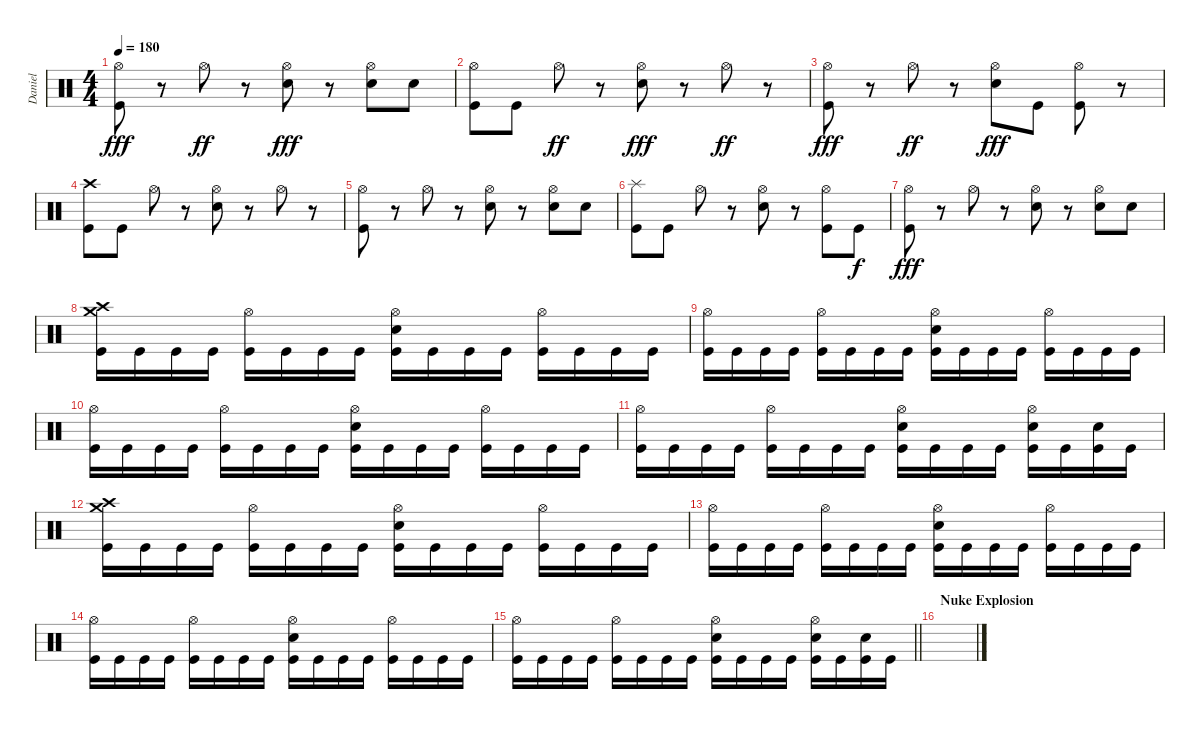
\track ("Daniel" "Daniel") {instrument percussion}
\staff {score}
\articulation defaults
\ts (4 4)
\tempo 180
\clef neutral
\ks c
("Hi-Hat (open)" "Kick (hit)").8{dy fff} r.8 "Hi-Hat (open)".8{dy ff} r.8 ("Hi-Hat (open)" "Snare (hit) 2").8{dy fff} r.8 ("Hi-Hat (open)" "Snare (hit) 2").8 "Snare (hit) 2".8 |
("Hi-Hat (open)" "Kick (hit)").8 "Kick (hit)".8 "Hi-Hat (open)".8{dy ff} r.8 ("Hi-Hat (open)" "Snare (hit) 2").8{dy fff} r.8 "Hi-Hat (open)".8{dy ff} r.8 |
("Hi-Hat (open)" "Kick (hit)").8{dy fff} r.8 "Hi-Hat (open)".8{dy ff} r.8 ("Hi-Hat (open)" "Snare (hit) 2").8{dy fff} "Kick (hit)".8 ("Hi-Hat (open)" "Kick (hit)").8 r.8 |
("Crash high (hit)" "Kick (hit)").8 "Kick (hit)".8 "Hi-Hat (open)".8 r.8 ("Hi-Hat (open)" "Snare (hit) 2").8 r.8 "Hi-Hat (open)".8 r.8 |
("Hi-Hat (open)" "Kick (hit)").8 r.8 "Hi-Hat (open)".8 r.8 ("Hi-Hat (open)" "Snare (hit) 2").8 r.8 ("Hi-Hat (open)" "Snare (hit) 2").8 "Snare (hit) 2".8 |
("Splash (hit)" "Kick (hit)").8 "Kick (hit)".8 "Hi-Hat (open)".8 r.8 ("Hi-Hat (open)" "Snare (hit) 2").8 r.8 ("Hi-Hat (open)" "Kick (hit)").8 "Kick (hit)".8{dy f} |
("Hi-Hat (open)" "Kick (hit)").8{dy fff} r.8 "Hi-Hat (open)".8 r.8 ("Hi-Hat (open)" "Snare (hit) 2").8 r.8 ("Hi-Hat (open)" "Snare (hit) 2").8 "Snare (hit) 2".8 |
("Crash high (hit)" "Crash medium (hit)" "Kick (hit)").16 "Kick (hit)".16 "Kick (hit)".16 "Kick (hit)".16 ("Hi-Hat (open)" "Kick (hit)").16 "Kick (hit)".16 "Kick (hit)".16 "Kick (hit)".16 ("Hi-Hat (open)" "Snare (hit) 2" "Kick (hit)").16 "Kick (hit)".16 "Kick (hit)".16 "Kick (hit)".16 ("Hi-Hat (open)" "Kick (hit)").16 "Kick (hit)".16 "Kick (hit)".16 "Kick (hit)".16 |
("Hi-Hat (open)" "Kick (hit)").16 "Kick (hit)".16 "Kick (hit)".16 "Kick (hit)".16 ("Hi-Hat (open)" "Kick (hit)").16 "Kick (hit)".16 "Kick (hit)".16 "Kick (hit)".16 ("Hi-Hat (open)" "Snare (hit) 2" "Kick (hit)").16 "Kick (hit)".16 "Kick (hit)".16 "Kick (hit)".16 ("Hi-Hat (open)" "Kick (hit)").16 "Kick (hit)".16 "Kick (hit)".16 "Kick (hit)".16 |
("Hi-Hat (open)" "Kick (hit)").16 "Kick (hit)".16 "Kick (hit)".16 "Kick (hit)".16 ("Hi-Hat (open)" "Kick (hit)").16 "Kick (hit)".16 "Kick (hit)".16 "Kick (hit)".16 ("Hi-Hat (open)" "Snare (hit) 2" "Kick (hit)").16 "Kick (hit)".16 "Kick (hit)".16 "Kick (hit)".16 ("Hi-Hat (open)" "Kick (hit)").16 "Kick (hit)".16 "Kick (hit)".16 "Kick (hit)".16 |
("Hi-Hat (open)" "Kick (hit)").16 "Kick (hit)".16 "Kick (hit)".16 "Kick (hit)".16 ("Hi-Hat (open)" "Kick (hit)").16 "Kick (hit)".16 "Kick (hit)".16 "Kick (hit)".16 ("Hi-Hat (open)" "Snare (hit) 2" "Kick (hit)").16 "Kick (hit)".16 "Kick (hit)".16 "Kick (hit)".16 ("Hi-Hat (open)" "Snare (hit) 2" "Kick (hit)").16 "Kick (hit)".16 ("Snare (hit) 2" "Kick (hit)").16 "Kick (hit)".16 |
("Crash high (hit)" "Crash medium (hit)" "Kick (hit)").16 "Kick (hit)".16 "Kick (hit)".16 "Kick (hit)".16 ("Hi-Hat (open)" "Kick (hit)").16 "Kick (hit)".16 "Kick (hit)".16 "Kick (hit)".16 ("Hi-Hat (open)" "Snare (hit) 2" "Kick (hit)").16 "Kick (hit)".16 "Kick (hit)".16 "Kick (hit)".16 ("Hi-Hat (open)" "Kick (hit)").16 "Kick (hit)".16 "Kick (hit)".16 "Kick (hit)".16 |
("Hi-Hat (open)" "Kick (hit)").16 "Kick (hit)".16 "Kick (hit)".16 "Kick (hit)".16 ("Hi-Hat (open)" "Kick (hit)").16 "Kick (hit)".16 "Kick (hit)".16 "Kick (hit)".16 ("Hi-Hat (open)" "Snare (hit) 2" "Kick (hit)").16 "Kick (hit)".16 "Kick (hit)".16 "Kick (hit)".16 ("Hi-Hat (open)" "Kick (hit)").16 "Kick (hit)".16 "Kick (hit)".16 "Kick (hit)".16 |
("Hi-Hat (open)" "Kick (hit)").16 "Kick (hit)".16 "Kick (hit)".16 "Kick (hit)".16 ("Hi-Hat (open)" "Kick (hit)").16 "Kick (hit)".16 "Kick (hit)".16 "Kick (hit)".16 ("Hi-Hat (open)" "Snare (hit) 2" "Kick (hit)").16 "Kick (hit)".16 "Kick (hit)".16 "Kick (hit)".16 ("Hi-Hat (open)" "Kick (hit)").16 "Kick (hit)".16 "Kick (hit)".16 "Kick (hit)".16 |
\barLineRight lightlight
("Hi-Hat (open)" "Kick (hit)").16 "Kick (hit)".16 "Kick (hit)".16 "Kick (hit)".16 ("Hi-Hat (open)" "Kick (hit)").16 "Kick (hit)".16 "Kick (hit)".16 "Kick (hit)".16 ("Hi-Hat (open)" "Snare (hit) 2" "Kick (hit)").16 "Kick (hit)".16 "Kick (hit)".16 "Kick (hit)".16 ("Hi-Hat (open)" "Snare (hit) 2" "Kick (hit)").16 "Kick (hit)".16 ("Snare (hit) 2" "Kick (hit)").16 "Kick (hit)".16 |
\section ("" "Nuke Explosion")
